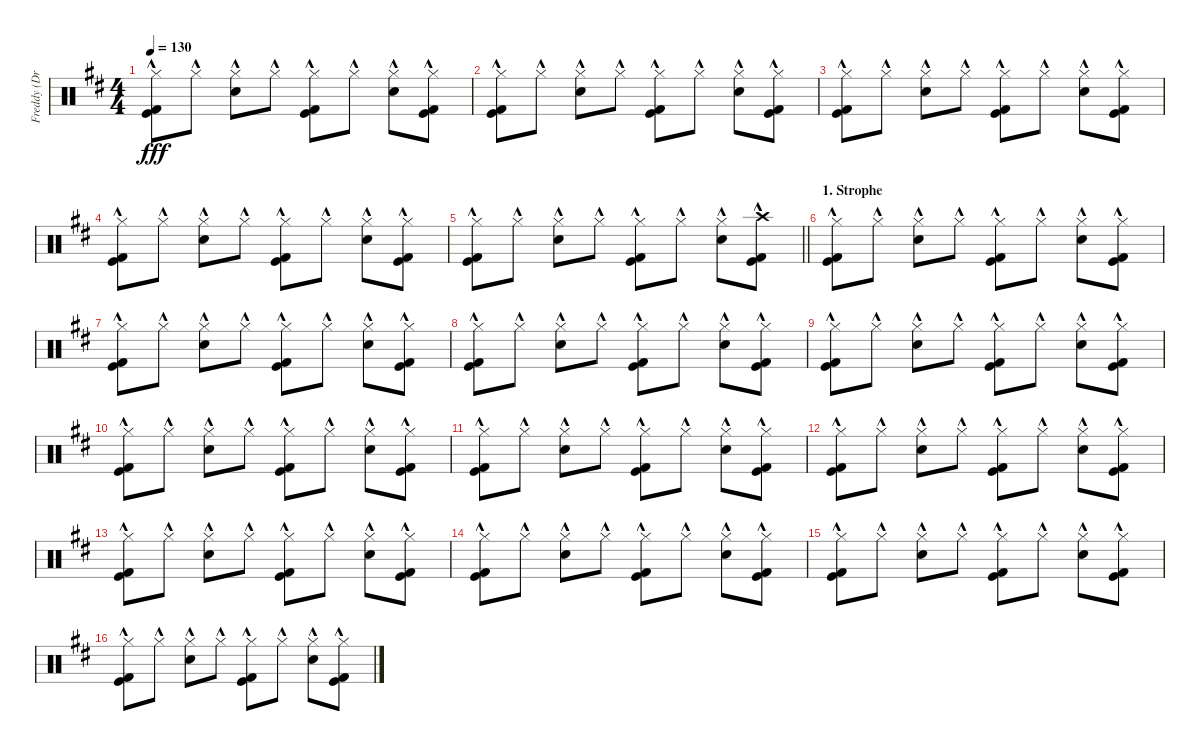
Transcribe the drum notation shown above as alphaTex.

\track ("Freddy (Drums)" "Freddy (Dr") {instrument percussion}
\staff {score}
\articulation defaults
\ts (4 4)
\tempo 130
\clef neutral
\ks d
("Hi-Hat (closed)"{hac} "Kick (hit)"{hac} "Kick (hit) 2"{hac}).8{dy fff} "Hi-Hat (closed)"{hac}.8 ("Hi-Hat (closed)"{hac} "Snare (hit) 2"{hac}).8 "Hi-Hat (closed)"{hac}.8 ("Hi-Hat (closed)"{hac} "Kick (hit)"{hac} "Kick (hit) 2"{hac}).8 "Hi-Hat (closed)"{hac}.8 ("Hi-Hat (closed)"{hac} "Snare (hit) 2"{hac}).8 ("Hi-Hat (closed)"{hac} "Kick (hit)"{hac} "Kick (hit) 2"{hac}).8 |
("Hi-Hat (closed)"{hac} "Kick (hit)"{hac} "Kick (hit) 2"{hac}).8 "Hi-Hat (closed)"{hac}.8 ("Hi-Hat (closed)"{hac} "Snare (hit) 2"{hac}).8 "Hi-Hat (closed)"{hac}.8 ("Hi-Hat (closed)"{hac} "Kick (hit)"{hac} "Kick (hit) 2"{hac}).8 "Hi-Hat (closed)"{hac}.8 ("Hi-Hat (closed)"{hac} "Snare (hit) 2"{hac}).8 ("Hi-Hat (closed)"{hac} "Kick (hit)"{hac} "Kick (hit) 2"{hac}).8 |
("Hi-Hat (closed)"{hac} "Kick (hit)"{hac} "Kick (hit) 2"{hac}).8 "Hi-Hat (closed)"{hac}.8 ("Hi-Hat (closed)"{hac} "Snare (hit) 2"{hac}).8 "Hi-Hat (closed)"{hac}.8 ("Hi-Hat (closed)"{hac} "Kick (hit)"{hac} "Kick (hit) 2"{hac}).8 "Hi-Hat (closed)"{hac}.8 ("Hi-Hat (closed)"{hac} "Snare (hit) 2"{hac}).8 ("Hi-Hat (closed)"{hac} "Kick (hit)"{hac} "Kick (hit) 2"{hac}).8 |
("Hi-Hat (closed)"{hac} "Kick (hit)"{hac} "Kick (hit) 2"{hac}).8 "Hi-Hat (closed)"{hac}.8 ("Hi-Hat (closed)"{hac} "Snare (hit) 2"{hac}).8 "Hi-Hat (closed)"{hac}.8 ("Hi-Hat (closed)"{hac} "Kick (hit)"{hac} "Kick (hit) 2"{hac}).8 "Hi-Hat (closed)"{hac}.8 ("Hi-Hat (closed)"{hac} "Snare (hit) 2"{hac}).8 ("Hi-Hat (closed)"{hac} "Kick (hit)"{hac} "Kick (hit) 2"{hac}).8 |
\barLineRight lightlight
("Hi-Hat (closed)"{hac} "Kick (hit)"{hac} "Kick (hit) 2"{hac}).8 "Hi-Hat (closed)"{hac}.8 ("Hi-Hat (closed)"{hac} "Snare (hit) 2"{hac}).8 "Hi-Hat (closed)"{hac}.8 ("Hi-Hat (closed)"{hac} "Kick (hit)"{hac} "Kick (hit) 2"{hac}).8 "Hi-Hat (closed)"{hac}.8 ("Hi-Hat (closed)"{hac} "Snare (hit) 2"{hac}).8 ("Crash high (hit)"{hac} "Kick (hit)"{hac} "Kick (hit) 2"{hac}).8 |
\section ("" "1. Strophe")
("Hi-Hat (closed)"{hac} "Kick (hit)"{hac} "Kick (hit) 2"{hac}).8 "Hi-Hat (closed)"{hac}.8 ("Hi-Hat (closed)"{hac} "Snare (hit) 2"{hac}).8 "Hi-Hat (closed)"{hac}.8 ("Hi-Hat (closed)"{hac} "Kick (hit)"{hac} "Kick (hit) 2"{hac}).8 "Hi-Hat (closed)"{hac}.8 ("Hi-Hat (closed)"{hac} "Snare (hit) 2"{hac}).8 ("Hi-Hat (closed)"{hac} "Kick (hit)"{hac} "Kick (hit) 2"{hac}).8 |
("Hi-Hat (closed)"{hac} "Kick (hit)"{hac} "Kick (hit) 2"{hac}).8 "Hi-Hat (closed)"{hac}.8 ("Hi-Hat (closed)"{hac} "Snare (hit) 2"{hac}).8 "Hi-Hat (closed)"{hac}.8 ("Hi-Hat (closed)"{hac} "Kick (hit)"{hac} "Kick (hit) 2"{hac}).8 "Hi-Hat (closed)"{hac}.8 ("Hi-Hat (closed)"{hac} "Snare (hit) 2"{hac}).8 ("Hi-Hat (closed)"{hac} "Kick (hit)"{hac} "Kick (hit) 2"{hac}).8 |
("Hi-Hat (closed)"{hac} "Kick (hit)"{hac} "Kick (hit) 2"{hac}).8 "Hi-Hat (closed)"{hac}.8 ("Hi-Hat (closed)"{hac} "Snare (hit) 2"{hac}).8 "Hi-Hat (closed)"{hac}.8 ("Hi-Hat (closed)"{hac} "Kick (hit)"{hac} "Kick (hit) 2"{hac}).8 "Hi-Hat (closed)"{hac}.8 ("Hi-Hat (closed)"{hac} "Snare (hit) 2"{hac}).8 ("Hi-Hat (closed)"{hac} "Kick (hit)"{hac} "Kick (hit) 2"{hac}).8 |
("Hi-Hat (closed)"{hac} "Kick (hit)"{hac} "Kick (hit) 2"{hac}).8 "Hi-Hat (closed)"{hac}.8 ("Hi-Hat (closed)"{hac} "Snare (hit) 2"{hac}).8 "Hi-Hat (closed)"{hac}.8 ("Hi-Hat (closed)"{hac} "Kick (hit)"{hac} "Kick (hit) 2"{hac}).8 "Hi-Hat (closed)"{hac}.8 ("Hi-Hat (closed)"{hac} "Snare (hit) 2"{hac}).8 ("Hi-Hat (closed)"{hac} "Kick (hit)"{hac} "Kick (hit) 2"{hac}).8 |
("Hi-Hat (closed)"{hac} "Kick (hit)"{hac} "Kick (hit) 2"{hac}).8 "Hi-Hat (closed)"{hac}.8 ("Hi-Hat (closed)"{hac} "Snare (hit) 2"{hac}).8 "Hi-Hat (closed)"{hac}.8 ("Hi-Hat (closed)"{hac} "Kick (hit)"{hac} "Kick (hit) 2"{hac}).8 "Hi-Hat (closed)"{hac}.8 ("Hi-Hat (closed)"{hac} "Snare (hit) 2"{hac}).8 ("Hi-Hat (closed)"{hac} "Kick (hit)"{hac} "Kick (hit) 2"{hac}).8 |
("Hi-Hat (closed)"{hac} "Kick (hit)"{hac} "Kick (hit) 2"{hac}).8 "Hi-Hat (closed)"{hac}.8 ("Hi-Hat (closed)"{hac} "Snare (hit) 2"{hac}).8 "Hi-Hat (closed)"{hac}.8 ("Hi-Hat (closed)"{hac} "Kick (hit)"{hac} "Kick (hit) 2"{hac}).8 "Hi-Hat (closed)"{hac}.8 ("Hi-Hat (closed)"{hac} "Snare (hit) 2"{hac}).8 ("Hi-Hat (closed)"{hac} "Kick (hit)"{hac} "Kick (hit) 2"{hac}).8 |
("Hi-Hat (closed)"{hac} "Kick (hit)"{hac} "Kick (hit) 2"{hac}).8 "Hi-Hat (closed)"{hac}.8 ("Hi-Hat (closed)"{hac} "Snare (hit) 2"{hac}).8 "Hi-Hat (closed)"{hac}.8 ("Hi-Hat (closed)"{hac} "Kick (hit)"{hac} "Kick (hit) 2"{hac}).8 "Hi-Hat (closed)"{hac}.8 ("Hi-Hat (closed)"{hac} "Snare (hit) 2"{hac}).8 ("Hi-Hat (closed)"{hac} "Kick (hit)"{hac} "Kick (hit) 2"{hac}).8 |
("Hi-Hat (closed)"{hac} "Kick (hit)"{hac} "Kick (hit) 2"{hac}).8 "Hi-Hat (closed)"{hac}.8 ("Hi-Hat (closed)"{hac} "Snare (hit) 2"{hac}).8 "Hi-Hat (closed)"{hac}.8 ("Hi-Hat (closed)"{hac} "Kick (hit)"{hac} "Kick (hit) 2"{hac}).8 "Hi-Hat (closed)"{hac}.8 ("Hi-Hat (closed)"{hac} "Snare (hit) 2"{hac}).8 ("Hi-Hat (closed)"{hac} "Kick (hit)"{hac} "Kick (hit) 2"{hac}).8 |
("Hi-Hat (closed)"{hac} "Kick (hit)"{hac} "Kick (hit) 2"{hac}).8 "Hi-Hat (closed)"{hac}.8 ("Hi-Hat (closed)"{hac} "Snare (hit) 2"{hac}).8 "Hi-Hat (closed)"{hac}.8 ("Hi-Hat (closed)"{hac} "Kick (hit)"{hac} "Kick (hit) 2"{hac}).8 "Hi-Hat (closed)"{hac}.8 ("Hi-Hat (closed)"{hac} "Snare (hit) 2"{hac}).8 ("Hi-Hat (closed)"{hac} "Kick (hit)"{hac} "Kick (hit) 2"{hac}).8 |
("Hi-Hat (closed)"{hac} "Kick (hit)"{hac} "Kick (hit) 2"{hac}).8 "Hi-Hat (closed)"{hac}.8 ("Hi-Hat (closed)"{hac} "Snare (hit) 2"{hac}).8 "Hi-Hat (closed)"{hac}.8 ("Hi-Hat (closed)"{hac} "Kick (hit)"{hac} "Kick (hit) 2"{hac}).8 "Hi-Hat (closed)"{hac}.8 ("Hi-Hat (closed)"{hac} "Snare (hit) 2"{hac}).8 ("Hi-Hat (closed)"{hac} "Kick (hit)"{hac} "Kick (hit) 2"{hac}).8 |
("Hi-Hat (closed)"{hac} "Kick (hit)"{hac} "Kick (hit) 2"{hac}).8 "Hi-Hat (closed)"{hac}.8 ("Hi-Hat (closed)"{hac} "Snare (hit) 2"{hac}).8 "Hi-Hat (closed)"{hac}.8 ("Hi-Hat (closed)"{hac} "Kick (hit)"{hac} "Kick (hit) 2"{hac}).8 "Hi-Hat (closed)"{hac}.8 ("Hi-Hat (closed)"{hac} "Snare (hit) 2"{hac}).8 ("Hi-Hat (closed)"{hac} "Kick (hit)"{hac} "Kick (hit) 2"{hac}).8
